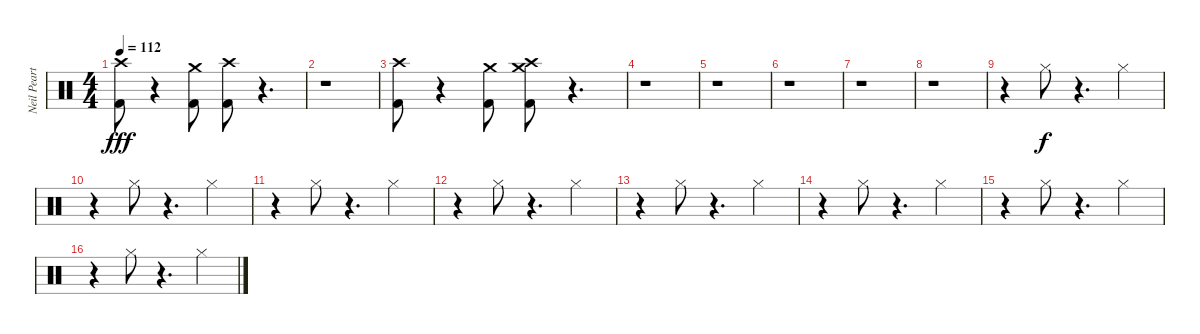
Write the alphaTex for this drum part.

\track ("Neil Peart" "Neil Peart") {instrument percussion}
\staff {score}
\articulation defaults
\ts (4 4)
\tempo 112
\clef neutral
\ks c
("Crash high (hit)" "Kick (hit) 2").8{dy fff} r.4 ("Crash medium (hit)" "Kick (hit) 2").8 ("Crash high (hit)" "Kick (hit) 2").8 r.4{d} |
r.1 |
("Crash high (hit)" "Kick (hit) 2").8 r.4 ("Crash medium (hit)" "Kick (hit) 2").8 ("Crash medium (hit)" "Crash high (hit)" "Kick (hit) 2").8 r.4{d} |
r.1 |
r.1 |
r.1 |
r.1 |
r.1 |
r.4 "Hi-Hat (closed)".8{dy f} r.4{d} "Hi-Hat (closed)".4 |
r.4 "Hi-Hat (closed)".8 r.4{d} "Hi-Hat (closed)".4 |
r.4 "Hi-Hat (closed)".8 r.4{d} "Hi-Hat (closed)".4 |
r.4 "Hi-Hat (closed)".8 r.4{d} "Hi-Hat (closed)".4 |
r.4 "Hi-Hat (closed)".8 r.4{d} "Hi-Hat (closed)".4 |
r.4 "Hi-Hat (closed)".8 r.4{d} "Hi-Hat (closed)".4 |
r.4 "Hi-Hat (closed)".8 r.4{d} "Hi-Hat (closed)".4 |
r.4 "Hi-Hat (closed)".8 r.4{d} "Hi-Hat (closed)".4
